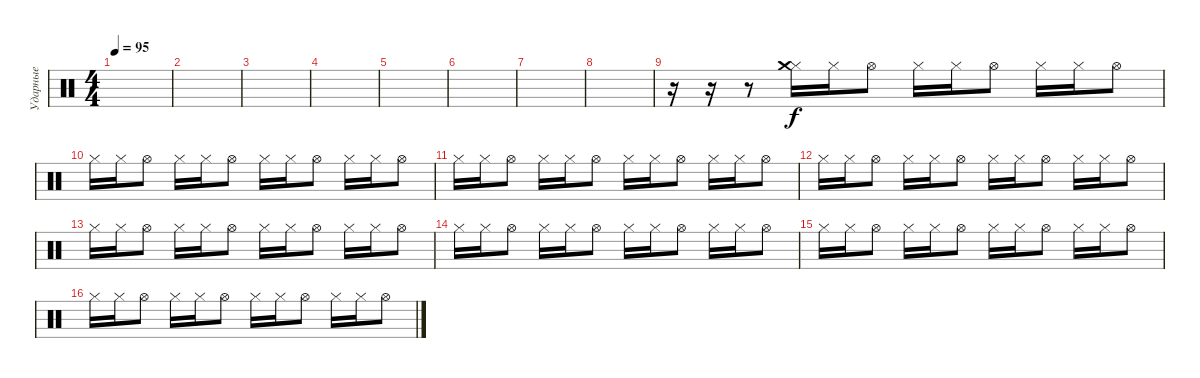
\track ("Ударные" "Ударные") {instrument percussion}
\staff {score}
\articulation defaults
\ts (4 4)
\tempo 95
\clef neutral
\ks c
|
|
|
|
|
|
|
|
r.16 r.16 r.8 ("Hi-Hat (closed)" "Crash medium (hit)").16 "Hi-Hat (closed)".16 "Hi-Hat (open)".8 "Hi-Hat (closed)".16 "Hi-Hat (closed)".16 "Hi-Hat (open)".8 "Hi-Hat (closed)".16 "Hi-Hat (closed)".16 "Hi-Hat (open)".8 |
"Hi-Hat (closed)".16 "Hi-Hat (closed)".16 "Hi-Hat (open)".8 "Hi-Hat (closed)".16 "Hi-Hat (closed)".16 "Hi-Hat (open)".8 "Hi-Hat (closed)".16 "Hi-Hat (closed)".16 "Hi-Hat (open)".8 "Hi-Hat (closed)".16 "Hi-Hat (closed)".16 "Hi-Hat (open)".8 |
"Hi-Hat (closed)".16 "Hi-Hat (closed)".16 "Hi-Hat (open)".8 "Hi-Hat (closed)".16 "Hi-Hat (closed)".16 "Hi-Hat (open)".8 "Hi-Hat (closed)".16 "Hi-Hat (closed)".16 "Hi-Hat (open)".8 "Hi-Hat (closed)".16 "Hi-Hat (closed)".16 "Hi-Hat (open)".8 |
"Hi-Hat (closed)".16 "Hi-Hat (closed)".16 "Hi-Hat (open)".8 "Hi-Hat (closed)".16 "Hi-Hat (closed)".16 "Hi-Hat (open)".8 "Hi-Hat (closed)".16 "Hi-Hat (closed)".16 "Hi-Hat (open)".8 "Hi-Hat (closed)".16 "Hi-Hat (closed)".16 "Hi-Hat (open)".8 |
"Hi-Hat (closed)".16 "Hi-Hat (closed)".16 "Hi-Hat (open)".8 "Hi-Hat (closed)".16 "Hi-Hat (closed)".16 "Hi-Hat (open)".8 "Hi-Hat (closed)".16 "Hi-Hat (closed)".16 "Hi-Hat (open)".8 "Hi-Hat (closed)".16 "Hi-Hat (closed)".16 "Hi-Hat (open)".8 |
"Hi-Hat (closed)".16 "Hi-Hat (closed)".16 "Hi-Hat (open)".8 "Hi-Hat (closed)".16 "Hi-Hat (closed)".16 "Hi-Hat (open)".8 "Hi-Hat (closed)".16 "Hi-Hat (closed)".16 "Hi-Hat (open)".8 "Hi-Hat (closed)".16 "Hi-Hat (closed)".16 "Hi-Hat (open)".8 |
"Hi-Hat (closed)".16 "Hi-Hat (closed)".16 "Hi-Hat (open)".8 "Hi-Hat (closed)".16 "Hi-Hat (closed)".16 "Hi-Hat (open)".8 "Hi-Hat (closed)".16 "Hi-Hat (closed)".16 "Hi-Hat (open)".8 "Hi-Hat (closed)".16 "Hi-Hat (closed)".16 "Hi-Hat (open)".8 |
"Hi-Hat (closed)".16 "Hi-Hat (closed)".16 "Hi-Hat (open)".8 "Hi-Hat (closed)".16 "Hi-Hat (closed)".16 "Hi-Hat (open)".8 "Hi-Hat (closed)".16 "Hi-Hat (closed)".16 "Hi-Hat (open)".8 "Hi-Hat (closed)".16 "Hi-Hat (closed)".16 "Hi-Hat (open)".8
